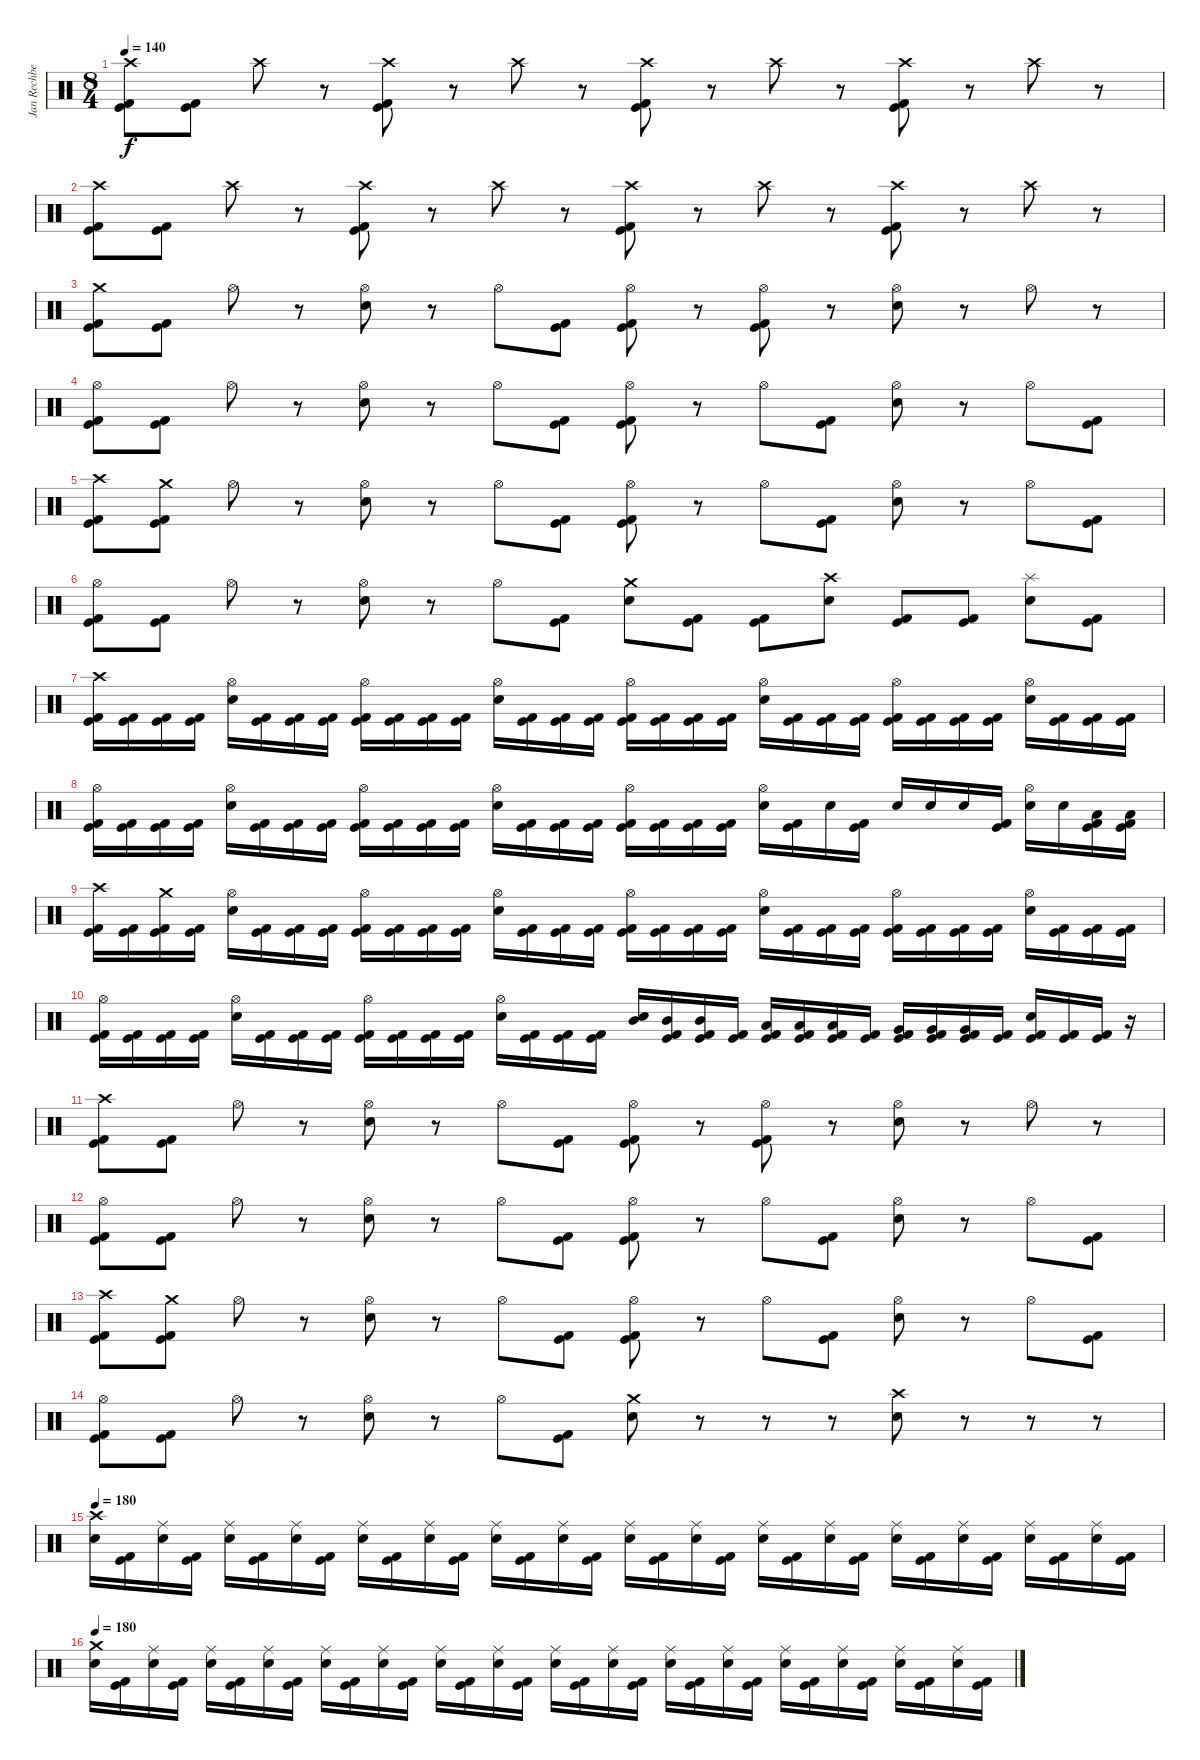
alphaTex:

\track ("Jan Rechberger" "Jan Rechbe") {instrument percussion}
\staff {score}
\articulation defaults
\ts (8 4)
\tempo 140
\clef neutral
\ks c
("Crash high (hit)" "Kick (hit) 2" "Kick (hit)").8{dy f} ("Kick (hit) 2" "Kick (hit)").8 "Crash high (hit)".8 r.8 ("Crash high (hit)" "Kick (hit)" "Kick (hit) 2").8 r.8 "Crash high (hit)".8 r.8 ("Crash high (hit)" "Kick (hit) 2" "Kick (hit)").8 r.8 "Crash high (hit)".8 r.8 ("Crash high (hit)" "Kick (hit) 2" "Kick (hit)").8 r.8 "Crash high (hit)".8 r.8 |
("Crash high (hit)" "Kick (hit) 2" "Kick (hit)").8 ("Kick (hit) 2" "Kick (hit)").8 "Crash high (hit)".8 r.8 ("Crash high (hit)" "Kick (hit)" "Kick (hit) 2").8 r.8 "Crash high (hit)".8 r.8 ("Crash high (hit)" "Kick (hit) 2" "Kick (hit)").8 r.8 "Crash high (hit)".8 r.8 ("Crash high (hit)" "Kick (hit) 2" "Kick (hit)").8 r.8 "Crash high (hit)".8 r.8 |
("Crash medium (hit)" "Kick (hit) 2" "Kick (hit)").8 ("Kick (hit) 2" "Kick (hit)").8 "Hi-Hat (open)".8 r.8 ("Hi-Hat (open)" "Electric Snare (hit)").8 r.8 "Hi-Hat (open)".8 ("Kick (hit) 2" "Kick (hit)").8 ("Hi-Hat (open)" "Kick (hit) 2" "Kick (hit)").8 r.8 ("Hi-Hat (open)" "Kick (hit) 2" "Kick (hit)").8 r.8 ("Hi-Hat (open)" "Electric Snare (hit)").8 r.8 "Hi-Hat (open)".8 r.8 |
("Hi-Hat (open)" "Kick (hit) 2" "Kick (hit)").8 ("Kick (hit) 2" "Kick (hit)").8 "Hi-Hat (open)".8 r.8 ("Hi-Hat (open)" "Electric Snare (hit)").8 r.8 "Hi-Hat (open)".8 ("Kick (hit) 2" "Kick (hit)").8 ("Hi-Hat (open)" "Kick (hit) 2" "Kick (hit)").8 r.8 "Hi-Hat (open)".8 ("Kick (hit) 2" "Kick (hit)").8 ("Hi-Hat (open)" "Electric Snare (hit)").8 r.8 "Hi-Hat (open)".8 ("Kick (hit) 2" "Kick (hit)").8 |
("Crash high (hit)" "Kick (hit) 2" "Kick (hit)").8 ("Crash medium (hit)" "Kick (hit) 2" "Kick (hit)").8 "Hi-Hat (open)".8 r.8 ("Hi-Hat (open)" "Electric Snare (hit)").8 r.8 "Hi-Hat (open)".8 ("Kick (hit) 2" "Kick (hit)").8 ("Hi-Hat (open)" "Kick (hit) 2" "Kick (hit)").8 r.8 "Hi-Hat (open)".8 ("Kick (hit) 2" "Kick (hit)").8 ("Hi-Hat (open)" "Electric Snare (hit)").8 r.8 "Hi-Hat (open)".8 ("Kick (hit)" "Kick (hit) 2").8 |
("Hi-Hat (open)" "Kick (hit) 2" "Kick (hit)").8 ("Kick (hit) 2" "Kick (hit)").8 "Hi-Hat (open)".8 r.8 ("Hi-Hat (open)" "Electric Snare (hit)").8 r.8 "Hi-Hat (open)".8 ("Kick (hit) 2" "Kick (hit)").8 ("Crash medium (hit)" "Electric Snare (hit)").8 ("Kick (hit) 2" "Kick (hit)").8 ("Kick (hit) 2" "Kick (hit)").8 ("Crash high (hit)" "Electric Snare (hit)").8 ("Kick (hit) 2" "Kick (hit)").8 ("Kick (hit) 2" "Kick (hit)").8 ("Splash (hit)" "Electric Snare (hit)").8 ("Kick (hit) 2" "Kick (hit)").8 |
("Crash high (hit)" "Kick (hit) 2" "Kick (hit)").16 ("Kick (hit) 2" "Kick (hit)").16 ("Kick (hit) 2" "Kick (hit)").16 ("Kick (hit) 2" "Kick (hit)").16 ("Hi-Hat (open)" "Electric Snare (hit)").16 ("Kick (hit) 2" "Kick (hit)").16 ("Kick (hit) 2" "Kick (hit)").16 ("Kick (hit) 2" "Kick (hit)").16 ("Hi-Hat (open)" "Kick (hit) 2" "Kick (hit)").16 ("Kick (hit) 2" "Kick (hit)").16 ("Kick (hit) 2" "Kick (hit)").16 ("Kick (hit) 2" "Kick (hit)").16 ("Hi-Hat (open)" "Electric Snare (hit)").16 ("Kick (hit) 2" "Kick (hit)").16 ("Kick (hit) 2" "Kick (hit)").16 ("Kick (hit) 2" "Kick (hit)").16 ("Hi-Hat (open)" "Kick (hit) 2" "Kick (hit)").16 ("Kick (hit) 2" "Kick (hit)").16 ("Kick (hit) 2" "Kick (hit)").16 ("Kick (hit) 2" "Kick (hit)").16 ("Hi-Hat (open)" "Electric Snare (hit)").16 ("Kick (hit) 2" "Kick (hit)").16 ("Kick (hit) 2" "Kick (hit)").16 ("Kick (hit) 2" "Kick (hit)").16 ("Hi-Hat (open)" "Kick (hit) 2" "Kick (hit)").16 ("Kick (hit) 2" "Kick (hit)").16 ("Kick (hit) 2" "Kick (hit)").16 ("Kick (hit) 2" "Kick (hit)").16 ("Hi-Hat (open)" "Electric Snare (hit)").16 ("Kick (hit) 2" "Kick (hit)").16 ("Kick (hit) 2" "Kick (hit)").16 ("Kick (hit) 2" "Kick (hit)").16 |
("Hi-Hat (open)" "Kick (hit) 2" "Kick (hit)").16 ("Kick (hit) 2" "Kick (hit)").16 ("Kick (hit) 2" "Kick (hit)").16 ("Kick (hit) 2" "Kick (hit)").16 ("Hi-Hat (open)" "Electric Snare (hit)").16 ("Kick (hit) 2" "Kick (hit)").16 ("Kick (hit) 2" "Kick (hit)").16 ("Kick (hit) 2" "Kick (hit)").16 ("Hi-Hat (open)" "Kick (hit) 2" "Kick (hit)").16 ("Kick (hit) 2" "Kick (hit)").16 ("Kick (hit) 2" "Kick (hit)").16 ("Kick (hit) 2" "Kick (hit)").16 ("Hi-Hat (open)" "Electric Snare (hit)").16 ("Kick (hit) 2" "Kick (hit)").16 ("Kick (hit) 2" "Kick (hit)").16 ("Kick (hit) 2" "Kick (hit)").16 ("Hi-Hat (open)" "Kick (hit) 2" "Kick (hit)").16 ("Kick (hit) 2" "Kick (hit)").16 ("Kick (hit) 2" "Kick (hit)").16 ("Kick (hit) 2" "Kick (hit)").16 ("Hi-Hat (open)" "Electric Snare (hit)").16 ("Kick (hit) 2" "Kick (hit)").16 "Electric Snare (hit)".16 ("Kick (hit) 2" "Kick (hit)").16 "Electric Snare (hit)".16 "Electric Snare (hit)".16 "Electric Snare (hit)".16 ("Kick (hit) 2" "Kick (hit)").16 ("Hi-Hat (open)" "Electric Snare (hit)").16 "Electric Snare (hit)".16 ("Low Tom (hit)" "Kick (hit) 2" "Kick (hit)").16 ("Low Tom (hit)" "Kick (hit) 2" "Kick (hit)").16 |
("Crash high (hit)" "Kick (hit) 2" "Kick (hit)").16 ("Kick (hit) 2" "Kick (hit)").16 ("Crash medium (hit)" "Kick (hit) 2" "Kick (hit)").16 ("Kick (hit) 2" "Kick (hit)").16 ("Hi-Hat (open)" "Electric Snare (hit)").16 ("Kick (hit) 2" "Kick (hit)").16 ("Kick (hit) 2" "Kick (hit)").16 ("Kick (hit) 2" "Kick (hit)").16 ("Hi-Hat (open)" "Kick (hit) 2" "Kick (hit)").16 ("Kick (hit) 2" "Kick (hit)").16 ("Kick (hit) 2" "Kick (hit)").16 ("Kick (hit) 2" "Kick (hit)").16 ("Hi-Hat (open)" "Electric Snare (hit)").16 ("Kick (hit) 2" "Kick (hit)").16 ("Kick (hit) 2" "Kick (hit)").16 ("Kick (hit) 2" "Kick (hit)").16 ("Hi-Hat (open)" "Kick (hit) 2" "Kick (hit)").16 ("Kick (hit) 2" "Kick (hit)").16 ("Kick (hit) 2" "Kick (hit)").16 ("Kick (hit) 2" "Kick (hit)").16 ("Hi-Hat (open)" "Electric Snare (hit)").16 ("Kick (hit) 2" "Kick (hit)").16 ("Kick (hit) 2" "Kick (hit)").16 ("Kick (hit) 2" "Kick (hit)").16 ("Hi-Hat (open)" "Kick (hit) 2" "Kick (hit)").16 ("Kick (hit) 2" "Kick (hit)").16 ("Kick (hit) 2" "Kick (hit)").16 ("Kick (hit) 2" "Kick (hit)").16 ("Hi-Hat (open)" "Electric Snare (hit)").16 ("Kick (hit) 2" "Kick (hit)").16 ("Kick (hit) 2" "Kick (hit)").16 ("Kick (hit) 2" "Kick (hit)").16 |
("Hi-Hat (open)" "Kick (hit) 2" "Kick (hit)").16 ("Kick (hit) 2" "Kick (hit)").16 ("Kick (hit) 2" "Kick (hit)").16 ("Kick (hit) 2" "Kick (hit)").16 ("Hi-Hat (open)" "Electric Snare (hit)").16 ("Kick (hit) 2" "Kick (hit)").16 ("Kick (hit) 2" "Kick (hit)").16 ("Kick (hit) 2" "Kick (hit)").16 ("Hi-Hat (open)" "Kick (hit) 2" "Kick (hit)").16 ("Kick (hit) 2" "Kick (hit)").16 ("Kick (hit) 2" "Kick (hit)").16 ("Kick (hit) 2" "Kick (hit)").16 ("Hi-Hat (open)" "Electric Snare (hit)").16 ("Kick (hit) 2" "Kick (hit)").16 ("Kick (hit) 2" "Kick (hit)").16 ("Kick (hit)" "Kick (hit) 2").16 ("Mid Tom (hit)" "Electric Snare (hit)").16 ("Mid Tom (hit)" "Kick (hit) 2" "Kick (hit)").16 ("Mid Tom (hit)" "Kick (hit) 2" "Kick (hit)").16 ("Kick (hit) 2" "Kick (hit)").16 ("Low Tom (hit)" "Kick (hit)" "Kick (hit) 2").16 ("Low Tom (hit)" "Kick (hit) 2" "Kick (hit)").16 ("Low Tom (hit)" "Kick (hit) 2" "Kick (hit)").16 ("Kick (hit) 2" "Kick (hit)").16 ("Very Low Tom (hit)" "Kick (hit) 2" "Kick (hit)").16 ("Very Low Tom (hit)" "Kick (hit) 2" "Kick (hit)").16 ("Very Low Tom (hit)" "Kick (hit) 2" "Kick (hit)").16 ("Kick (hit) 2" "Kick (hit)").16 ("Electric Snare (hit)" "Kick (hit)" "Kick (hit) 2").16 ("Kick (hit) 2" "Kick (hit)").16 ("Kick (hit) 2" "Kick (hit)").16 r.16 |
("Crash high (hit)" "Kick (hit) 2" "Kick (hit)").8 ("Kick (hit) 2" "Kick (hit)").8 "Hi-Hat (open)".8 r.8 ("Hi-Hat (open)" "Electric Snare (hit)").8 r.8 "Hi-Hat (open)".8 ("Kick (hit) 2" "Kick (hit)").8 ("Hi-Hat (open)" "Kick (hit) 2" "Kick (hit)").8 r.8 ("Hi-Hat (open)" "Kick (hit) 2" "Kick (hit)").8 r.8 ("Hi-Hat (open)" "Electric Snare (hit)").8 r.8 "Hi-Hat (open)".8 r.8 |
("Hi-Hat (open)" "Kick (hit) 2" "Kick (hit)").8 ("Kick (hit) 2" "Kick (hit)").8 "Hi-Hat (open)".8 r.8 ("Hi-Hat (open)" "Electric Snare (hit)").8 r.8 "Hi-Hat (open)".8 ("Kick (hit) 2" "Kick (hit)").8 ("Hi-Hat (open)" "Kick (hit) 2" "Kick (hit)").8 r.8 "Hi-Hat (open)".8 ("Kick (hit) 2" "Kick (hit)").8 ("Hi-Hat (open)" "Electric Snare (hit)").8 r.8 "Hi-Hat (open)".8 ("Kick (hit) 2" "Kick (hit)").8 |
("Crash high (hit)" "Kick (hit) 2" "Kick (hit)").8 ("Crash medium (hit)" "Kick (hit) 2" "Kick (hit)").8 "Hi-Hat (open)".8 r.8 ("Hi-Hat (open)" "Electric Snare (hit)").8 r.8 "Hi-Hat (open)".8 ("Kick (hit) 2" "Kick (hit)").8 ("Hi-Hat (open)" "Kick (hit) 2" "Kick (hit)").8 r.8 "Hi-Hat (open)".8 ("Kick (hit) 2" "Kick (hit)").8 ("Hi-Hat (open)" "Electric Snare (hit)").8 r.8 "Hi-Hat (open)".8 ("Kick (hit)" "Kick (hit) 2").8 |
("Hi-Hat (open)" "Kick (hit) 2" "Kick (hit)").8 ("Kick (hit) 2" "Kick (hit)").8 "Hi-Hat (open)".8 r.8 ("Hi-Hat (open)" "Electric Snare (hit)").8 r.8 "Hi-Hat (open)".8 ("Kick (hit) 2" "Kick (hit)").8 ("Crash medium (hit)" "Electric Snare (hit)").8 r.8 r.8 r.8 ("Crash high (hit)" "Electric Snare (hit)").8 r.8 r.8 r.8 |
\tempo 180
("Crash high (hit)" "Electric Snare (hit)").16 ("Kick (hit)" "Kick (hit) 2").16 ("Ride (middle)" "Electric Snare (hit)").16 ("Kick (hit) 2" "Kick (hit)").16 ("Ride (middle)" "Electric Snare (hit)").16 ("Kick (hit) 2" "Kick (hit)").16 ("Ride (middle)" "Electric Snare (hit)").16 ("Kick (hit) 2" "Kick (hit)").16 ("Ride (middle)" "Electric Snare (hit)").16 ("Kick (hit) 2" "Kick (hit)").16 ("Ride (middle)" "Electric Snare (hit)").16 ("Kick (hit) 2" "Kick (hit)").16 ("Ride (middle)" "Electric Snare (hit)").16 ("Kick (hit) 2" "Kick (hit)").16 ("Ride (middle)" "Electric Snare (hit)").16 ("Kick (hit) 2" "Kick (hit)").16 ("Ride (middle)" "Electric Snare (hit)").16 ("Kick (hit) 2" "Kick (hit)").16 ("Ride (middle)" "Electric Snare (hit)").16 ("Kick (hit) 2" "Kick (hit)").16 ("Ride (middle)" "Electric Snare (hit)").16 ("Kick (hit) 2" "Kick (hit)").16 ("Ride (middle)" "Electric Snare (hit)").16 ("Kick (hit) 2" "Kick (hit)").16 ("Ride (middle)" "Electric Snare (hit)").16 ("Kick (hit) 2" "Kick (hit)").16 ("Ride (middle)" "Electric Snare (hit)").16 ("Kick (hit) 2" "Kick (hit)").16 ("Ride (middle)" "Electric Snare (hit)").16 ("Kick (hit) 2" "Kick (hit)").16 ("Ride (middle)" "Electric Snare (hit)").16 ("Kick (hit) 2" "Kick (hit)").16 |
\tempo 180
("Crash medium (hit)" "Electric Snare (hit)").16 ("Kick (hit)" "Kick (hit) 2").16 ("Ride (middle)" "Electric Snare (hit)").16 ("Kick (hit) 2" "Kick (hit)").16 ("Ride (middle)" "Electric Snare (hit)").16 ("Kick (hit) 2" "Kick (hit)").16 ("Ride (middle)" "Electric Snare (hit)").16 ("Kick (hit) 2" "Kick (hit)").16 ("Ride (middle)" "Electric Snare (hit)").16 ("Kick (hit) 2" "Kick (hit)").16 ("Ride (middle)" "Electric Snare (hit)").16 ("Kick (hit) 2" "Kick (hit)").16 ("Ride (middle)" "Electric Snare (hit)").16 ("Kick (hit) 2" "Kick (hit)").16 ("Ride (middle)" "Electric Snare (hit)").16 ("Kick (hit) 2" "Kick (hit)").16 ("Ride (middle)" "Electric Snare (hit)").16 ("Kick (hit) 2" "Kick (hit)").16 ("Ride (middle)" "Electric Snare (hit)").16 ("Kick (hit) 2" "Kick (hit)").16 ("Ride (middle)" "Electric Snare (hit)").16 ("Kick (hit) 2" "Kick (hit)").16 ("Ride (middle)" "Electric Snare (hit)").16 ("Kick (hit) 2" "Kick (hit)").16 ("Ride (middle)" "Electric Snare (hit)").16 ("Kick (hit) 2" "Kick (hit)").16 ("Ride (middle)" "Electric Snare (hit)").16 ("Kick (hit) 2" "Kick (hit)").16 ("Ride (middle)" "Electric Snare (hit)").16 ("Kick (hit) 2" "Kick (hit)").16 ("Ride (middle)" "Electric Snare (hit)").16 ("Kick (hit) 2" "Kick (hit)").16
